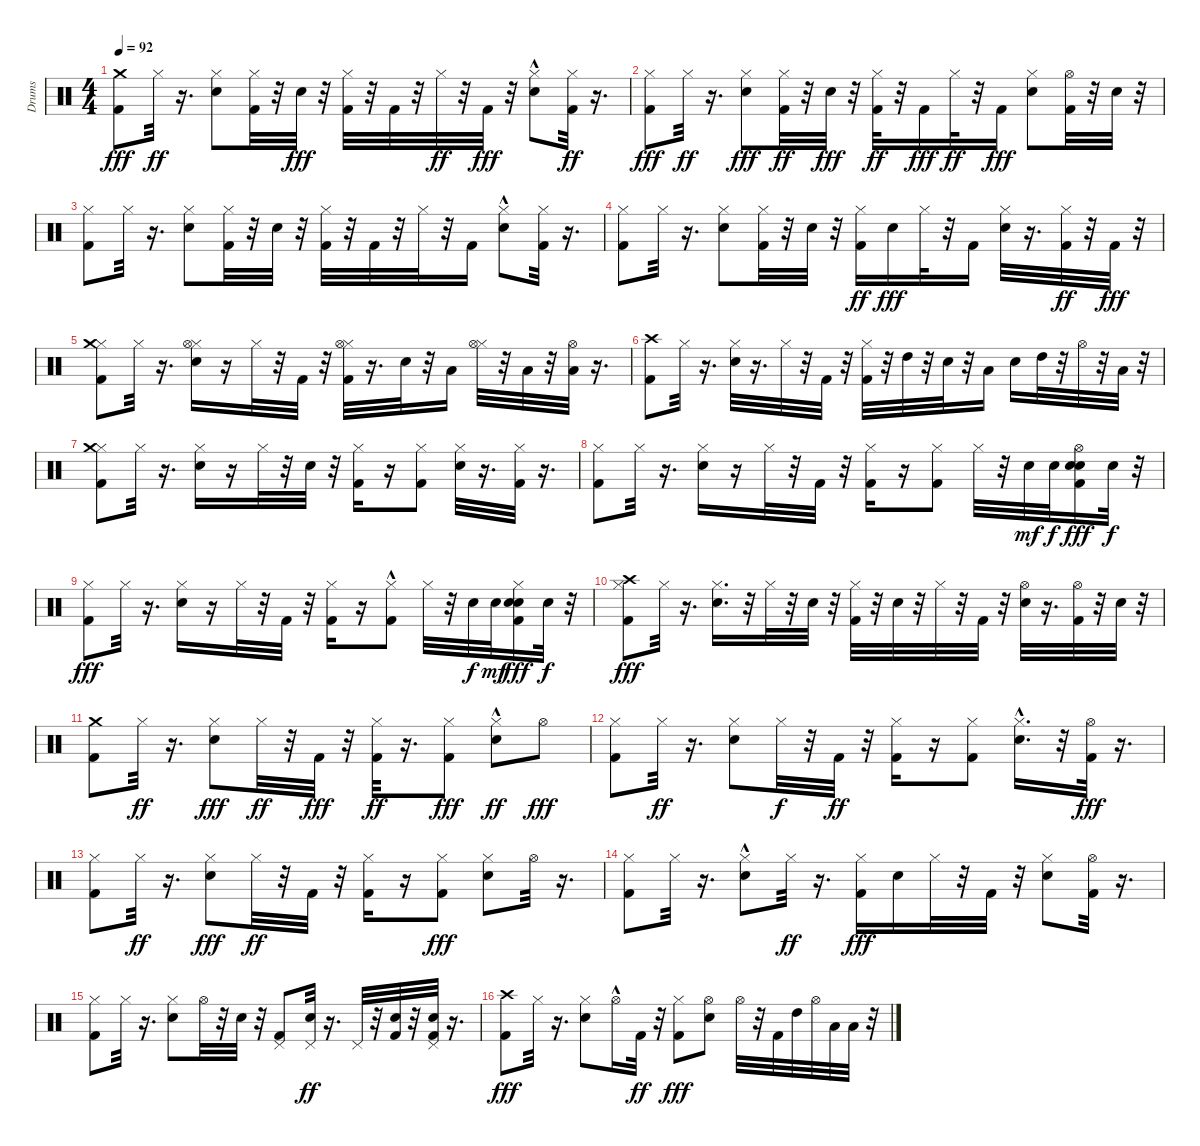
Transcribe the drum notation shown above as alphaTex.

\track ("Drums" "Drums") {instrument percussion}
\staff {score}
\articulation defaults
\ts (4 4)
\tempo 92
\clef neutral
\ks c
("Kick (hit) 2" "Crash medium (hit)").8{dy fff} "Hi-Hat (closed)".32{dy ff} r.16{d} ("Snare (hit) 2" "Hi-Hat (closed)").8 ("Kick (hit) 2" "Hi-Hat (closed)").32 r.32 "Snare (hit) 2".32{dy fff} r.32 ("Kick (hit) 2" "Hi-Hat (closed)").32 r.32 "Kick (hit) 2".32 r.32 "Hi-Hat (closed)".32{dy ff} r.32 "Kick (hit) 2".32{dy fff} r.32 ("Snare (hit) 2"{hac} "Hi-Hat (closed)").8 ("Kick (hit) 2" "Hi-Hat (closed)").32{dy ff} r.16{d} |
("Kick (hit) 2" "Hi-Hat (closed)").8{dy fff} "Hi-Hat (closed)".32{dy ff} r.16{d} ("Snare (hit) 2" "Hi-Hat (closed)").8{dy fff} ("Kick (hit) 2" "Hi-Hat (closed)").32{dy ff} r.32 "Snare (hit) 2".32{dy fff} r.32 ("Kick (hit) 2" "Hi-Hat (closed)").32{dy ff} r.32 "Kick (hit) 2".16{dy fff} "Hi-Hat (closed)".32{dy ff} r.32 "Kick (hit) 2".16{dy fff} ("Snare (hit) 2" "Hi-Hat (closed)").8 ("Kick (hit) 2" "Hi-Hat (open)").32 r.32 "Snare (hit) 2".32 r.32 |
("Kick (hit) 2" "Hi-Hat (closed)").8 "Hi-Hat (closed)".32 r.16{d} ("Snare (hit) 2" "Hi-Hat (closed)").8 ("Kick (hit) 2" "Hi-Hat (closed)").32 r.32 "Snare (hit) 2".32 r.32 ("Kick (hit) 2" "Hi-Hat (closed)").32 r.32 "Kick (hit) 2".32 r.32 "Hi-Hat (closed)".32 r.32 "Kick (hit) 2".16 ("Snare (hit) 2"{hac} "Hi-Hat (closed)").8 ("Kick (hit) 2" "Hi-Hat (closed)").32 r.16{d} |
("Kick (hit) 2" "Hi-Hat (closed)").8 "Hi-Hat (closed)".32 r.16{d} ("Snare (hit) 2" "Hi-Hat (closed)").8 ("Kick (hit) 2" "Hi-Hat (closed)").32 r.32 "Snare (hit) 2".32 r.32 ("Kick (hit) 2" "Hi-Hat (closed)").16{dy ff} "Snare (hit) 2".16{dy fff} "Hi-Hat (closed)".32 r.32 "Kick (hit) 2".16 ("Snare (hit) 2" "Hi-Hat (closed)").32 r.16{d} ("Kick (hit) 2" "Hi-Hat (closed)").32{dy ff} r.32 "Kick (hit) 2".32{dy fff} r.32 |
("Kick (hit) 2" "Hi-Hat (closed)" "Crash medium (hit)").8 "Hi-Hat (closed)".32 r.16{d} ("Snare (hit) 2" "Hi-Hat (closed)" "Hi-Hat (open)").16 r.16 "Hi-Hat (closed)".32 r.32 "Kick (hit) 2".32 r.32 ("Kick (hit) 2" "Hi-Hat (closed)" "Hi-Hat (open)").32 r.16{d} "Snare (hit) 2".32 r.32 "Low Floor Tom (hit)".16 ("Hi-Hat (closed)" "Hi-Hat (open)").32 r.32 "Low Tom (hit)".32 r.32 ("Low Floor Tom (hit)" "Hi-Hat (open)").32 r.16{d} |
("Kick (hit) 2" "Crash high (hit)").8 "Hi-Hat (closed)".32 r.16{d} ("Snare (hit) 2" "Hi-Hat (closed)").32 r.16{d} "Hi-Hat (closed)".32 r.32 "Kick (hit) 2".32 r.32 ("Kick (hit) 2" "Hi-Hat (closed)").32 r.32 "High Tom (hit)".32 r.32 "Snare (hit) 2".32 r.32 "Low Floor Tom (hit)".16 "Snare (hit) 2".16 "High Tom (hit)".32 r.32 "Hi-Hat (open)".32 r.32 "Low Floor Tom (hit)".32 r.32 |
("Kick (hit) 2" "Hi-Hat (closed)" "Crash medium (hit)").8 "Hi-Hat (closed)".32 r.16{d} ("Snare (hit) 2" "Hi-Hat (closed)").16 r.16 "Hi-Hat (closed)".32 r.32 "Snare (hit) 2".32 r.32 ("Kick (hit) 2" "Hi-Hat (closed)").16 r.16 ("Kick (hit) 2" "Hi-Hat (closed)").8 ("Snare (hit) 2" "Hi-Hat (closed)").32 r.16{d} ("Kick (hit) 2" "Hi-Hat (closed)").32 r.16{d} |
("Kick (hit) 2" "Hi-Hat (closed)").8 "Hi-Hat (closed)".32 r.16{d} ("Snare (hit) 2" "Hi-Hat (closed)").16 r.16 "Hi-Hat (closed)".32 r.32 "Kick (hit) 2".32 r.32 ("Kick (hit) 2" "Hi-Hat (closed)").16 r.16 ("Kick (hit) 2" "Hi-Hat (closed)").8 "Hi-Hat (closed)".32 r.32 "Snare (hit) 2".32{dy mf} "Snare (hit) 2".32{dy f} ("Snare (hit) 2" "Kick (hit) 2" "Snare (hit) 2" "Hi-Hat (open)").16{dy fff} "Snare (hit) 2".32{dy f} r.32 |
("Kick (hit) 2" "Hi-Hat (closed)").8{dy fff} "Hi-Hat (closed)".32 r.16{d} ("Snare (hit) 2" "Hi-Hat (closed)").16 r.16 "Hi-Hat (closed)".32 r.32 "Kick (hit) 2".32 r.32 ("Kick (hit) 2" "Hi-Hat (closed)").16 r.16 ("Kick (hit) 2"{hac} "Hi-Hat (closed)").8 "Hi-Hat (closed)".32 r.32 "Snare (hit) 2".32{dy f} "Snare (hit) 2".32{dy mf} ("Snare (hit) 2" "Kick (hit) 2" "Snare (hit) 2" "Hi-Hat (closed)").16{dy fff} "Snare (hit) 2".32{dy f} r.32 |
("Kick (hit) 2" "Hi-Hat (closed)" "Crash high (hit)").8{dy fff} "Hi-Hat (closed)".32 r.16{d} ("Snare (hit) 2" "Hi-Hat (closed)").16{d} r.32 "Hi-Hat (closed)".32 r.32 "Snare (hit) 2".32 r.32 ("Kick (hit) 2" "Hi-Hat (closed)").32 r.32 "Snare (hit) 2".32 r.32 "Hi-Hat (closed)".32 r.32 "Kick (hit) 2".32 r.32 ("Snare (hit) 2" "Hi-Hat (open)").32 r.16{d} ("Kick (hit) 2" "Hi-Hat (open)").32 r.32 "Snare (hit) 2".32 r.32 |
("Kick (hit) 2" "Crash medium (hit)").8 "Hi-Hat (closed)".32{dy ff} r.16{d} ("Snare (hit) 2" "Hi-Hat (closed)").8{dy fff} "Hi-Hat (closed)".32{dy ff} r.32 "Kick (hit) 2".32{dy fff} r.32 ("Kick (hit) 2" "Hi-Hat (closed)").32{dy ff} r.16{d} ("Kick (hit) 2" "Hi-Hat (closed)").8{dy fff} ("Snare (hit) 2"{hac} "Hi-Hat (closed)").8{dy ff} "Hi-Hat (open)".8{dy fff} |
("Kick (hit) 2" "Hi-Hat (closed)").8 "Hi-Hat (closed)".32{dy ff} r.16{d} ("Snare (hit) 2" "Hi-Hat (closed)").8 "Hi-Hat (closed)".32{dy f} r.32 "Kick (hit) 2".32{dy ff} r.32 ("Kick (hit) 2" "Hi-Hat (closed)").16 r.16 ("Kick (hit) 2" "Hi-Hat (closed)").8 ("Snare (hit) 2"{hac} "Hi-Hat (closed)").16{d} r.32 ("Kick (hit) 2" "Hi-Hat (open)").32{dy fff} r.16{d} |
("Kick (hit) 2" "Hi-Hat (closed)").8 "Hi-Hat (closed)".32{dy ff} r.16{d} ("Snare (hit) 2" "Hi-Hat (closed)").8{dy fff} "Hi-Hat (closed)".32{dy ff} r.32 "Kick (hit) 2".32 r.32 ("Kick (hit) 2" "Hi-Hat (closed)").16 r.16 ("Kick (hit) 2" "Hi-Hat (closed)").8{dy fff} ("Snare (hit) 2" "Hi-Hat (closed)").8 "Hi-Hat (open)".32 r.16{d} |
("Kick (hit) 2" "Hi-Hat (closed)").8 "Hi-Hat (closed)".32 r.16{d} ("Snare (hit) 2"{hac} "Hi-Hat (closed)").8 "Hi-Hat (closed)".32{dy ff} r.16{d} ("Kick (hit) 2" "Hi-Hat (closed)").16{dy fff} "Snare (hit) 2".16 "Hi-Hat (closed)".32 r.32 "Kick (hit) 2".32 r.32 ("Snare (hit) 2" "Hi-Hat (closed)").8 ("Kick (hit) 2" "Hi-Hat (open)").32 r.16{d} |
("Kick (hit) 2" "Hi-Hat (closed)").8 "Hi-Hat (closed)".32 r.16{d} ("Snare (hit) 2" "Hi-Hat (closed)").8 "Hi-Hat (open)".32 r.32 "Snare (hit) 2".32 r.32 ("Kick (hit) 2" "Pedal Hi-Hat (hit)").8 ("Snare (hit) 2" "Pedal Hi-Hat (hit)").32{dy ff} r.16{d} "Pedal Hi-Hat (hit)".32 r.32 ("Kick (hit) 2" "Snare (hit) 2").32 r.32 ("Kick (hit) 2" "Snare (hit) 2" "Pedal Hi-Hat (hit)").32 r.16{d} |
("Kick (hit) 2" "Crash high (hit)").8{dy fff} "Hi-Hat (closed)".32 r.16{d} ("Snare (hit) 2" "Hi-Hat (closed)").8 "Hi-Hat (open)"{hac}.16 "Kick (hit) 2".32{dy ff} r.32 ("Kick (hit) 2" "Hi-Hat (closed)").8{dy fff} ("Snare (hit) 2" "Hi-Hat (open)").8 "Hi-Hat (open)".32 r.32 "Kick (hit) 2".32 "High Tom (hit)".32 "Hi-Hat (open)".32 "Low Tom (hit)".32 "Low Floor Tom (hit)".32 r.32
